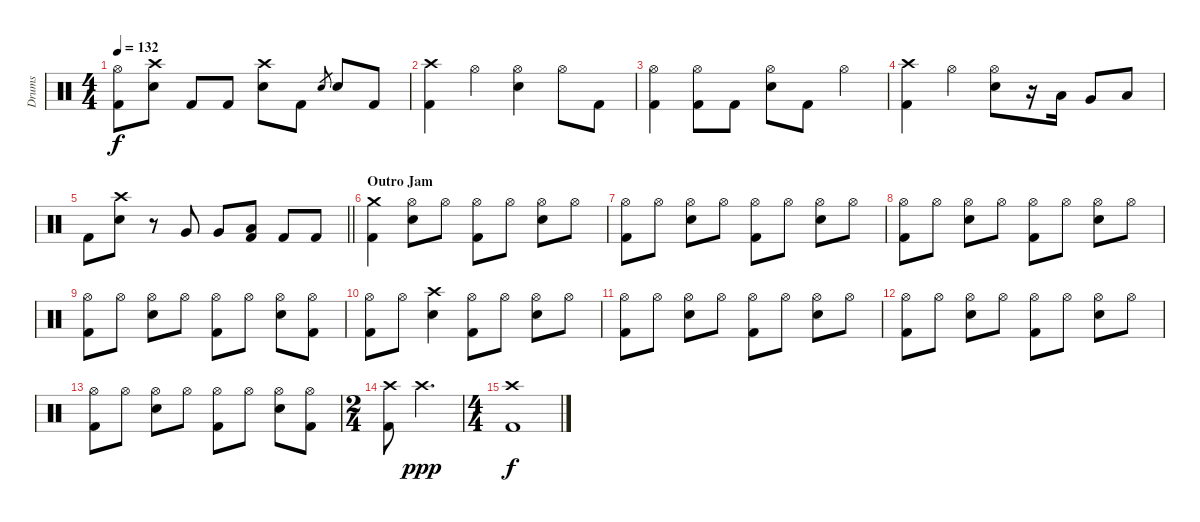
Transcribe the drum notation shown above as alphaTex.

\track ("Drums" "Drums") {instrument percussion}
\staff {score}
\articulation defaults
\ts (4 4)
\tempo 132
\clef neutral
\ks c
("Hi-Hat (open)" "Kick (hit) 2").8{dy f} ("Crash high (hit)" "Snare (hit) 2").8 "Kick (hit) 2".8 "Kick (hit) 2".8 ("Crash high (hit)" "Snare (hit) 2").8 "Kick (hit) 2".8 "Snare (hit) 2".8{gr} "Snare (hit) 2".8 "Kick (hit) 2".8 |
("Crash high (hit)" "Kick (hit) 2").4 "Hi-Hat (open)".4 ("Hi-Hat (open)" "Snare (hit) 2").4 "Hi-Hat (open)".8 "Kick (hit) 2".8 |
("Hi-Hat (open)" "Kick (hit) 2").4 ("Hi-Hat (open)" "Kick (hit) 2").8 "Kick (hit) 2".8 ("Hi-Hat (open)" "Snare (hit) 2").8 "Kick (hit) 2".8 "Hi-Hat (open)".4 |
("Crash high (hit)" "Kick (hit) 2").4 "Hi-Hat (open)".4 ("Hi-Hat (open)" "Snare (hit) 2").8 r.16 "Low Tom (hit)".16 "Very Low Tom (hit)".8 "Low Floor Tom (hit)".8 |
\barLineRight lightlight "Kick (hit) 2".8
("Crash high (hit)" "Snare (hit) 2").8 r.8 "Very Low Tom (hit)".8 "Very Low Tom (hit)".8 ("Low Floor Tom (hit)" "Kick (hit) 2").8 "Kick (hit) 2".8 "Kick (hit) 2".8 |
\section ("" "Outro Jam")
("Crash medium (hit)" "Kick (hit) 2").4 ("Hi-Hat (open)" "Snare (hit) 2").8 "Hi-Hat (open)".8 ("Hi-Hat (open)" "Kick (hit) 2").8 "Hi-Hat (open)".8 ("Hi-Hat (open)" "Snare (hit) 2").8 "Hi-Hat (open)".8 |
("Hi-Hat (open)" "Kick (hit) 2").8 "Hi-Hat (open)".8 ("Hi-Hat (open)" "Snare (hit) 2").8 "Hi-Hat (open)".8 ("Hi-Hat (open)" "Kick (hit) 2").8 "Hi-Hat (open)".8 ("Hi-Hat (open)" "Snare (hit) 2").8 "Hi-Hat (open)".8 |
("Hi-Hat (open)" "Kick (hit) 2").8 "Hi-Hat (open)".8 ("Hi-Hat (open)" "Snare (hit) 2").8 "Hi-Hat (open)".8 ("Hi-Hat (open)" "Kick (hit) 2").8 "Hi-Hat (open)".8 ("Hi-Hat (open)" "Snare (hit) 2").8 "Hi-Hat (open)".8 |
("Hi-Hat (open)" "Kick (hit) 2").8 "Hi-Hat (open)".8 ("Hi-Hat (open)" "Snare (hit) 2").8 "Hi-Hat (open)".8 ("Hi-Hat (open)" "Kick (hit) 2").8 "Hi-Hat (open)".8 ("Hi-Hat (open)" "Snare (hit) 2").8 ("Hi-Hat (open)" "Kick (hit) 2").8 |
("Hi-Hat (open)" "Kick (hit) 2").8 "Hi-Hat (open)".8 ("Crash high (hit)" "Snare (hit) 2").4 ("Hi-Hat (open)" "Kick (hit) 2").8 "Hi-Hat (open)".8 ("Hi-Hat (open)" "Snare (hit) 2").8 "Hi-Hat (open)".8 |
("Hi-Hat (open)" "Kick (hit) 2").8 "Hi-Hat (open)".8 ("Hi-Hat (open)" "Snare (hit) 2").8 "Hi-Hat (open)".8 ("Hi-Hat (open)" "Kick (hit) 2").8 "Hi-Hat (open)".8 ("Hi-Hat (open)" "Snare (hit) 2").8 "Hi-Hat (open)".8 |
("Hi-Hat (open)" "Kick (hit) 2").8 "Hi-Hat (open)".8 ("Hi-Hat (open)" "Snare (hit) 2").8 "Hi-Hat (open)".8 ("Hi-Hat (open)" "Kick (hit) 2").8 "Hi-Hat (open)".8 ("Hi-Hat (open)" "Snare (hit) 2").8 "Hi-Hat (open)".8 |
("Hi-Hat (open)" "Kick (hit) 2").8 "Hi-Hat (open)".8 ("Hi-Hat (open)" "Snare (hit) 2").8 "Hi-Hat (open)".8 ("Hi-Hat (open)" "Kick (hit) 2").8 "Hi-Hat (open)".8 ("Hi-Hat (open)" "Snare (hit) 2").8 ("Hi-Hat (open)" "Kick (hit) 2").8 |
\ts (2 4)
("Crash high (hit)" "Kick (hit) 2").8 "Crash high (hit)".4{d dy ppp} |
\ts (4 4)
("Crash high (hit)" "Kick (hit) 2").1{dy f}
